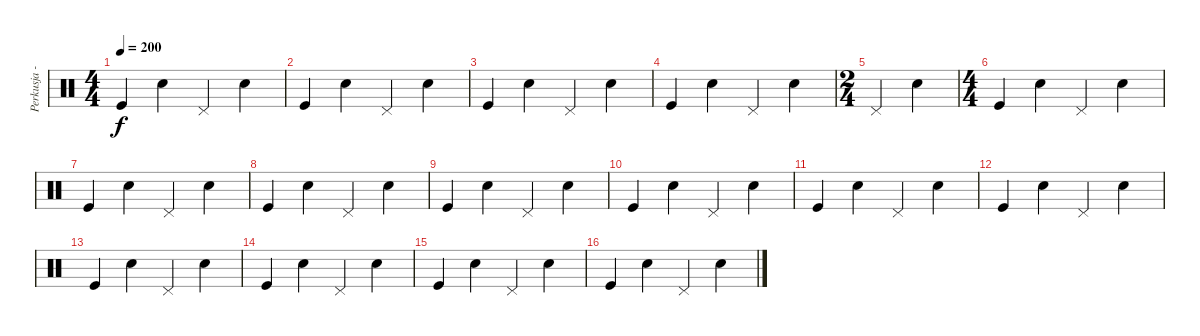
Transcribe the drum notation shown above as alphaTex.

\track ("Perkusja - J. Olejarz" "Perkusja -") {instrument percussion}
\staff {score}
\articulation defaults
\ts (4 4)
\tempo 200
\clef neutral
\ks c "Kick (hit)".4{dy f} "Electric Snare (hit)".4 "Pedal Hi-Hat (hit)".4 "Electric Snare (hit)".4
|
"Kick (hit)".4 "Electric Snare (hit)".4 "Pedal Hi-Hat (hit)".4 "Electric Snare (hit)".4 |
"Kick (hit)".4 "Electric Snare (hit)".4 "Pedal Hi-Hat (hit)".4 "Electric Snare (hit)".4 |
"Kick (hit)".4 "Electric Snare (hit)".4 "Pedal Hi-Hat (hit)".4 "Electric Snare (hit)".4 |
\ts (2 4)
"Pedal Hi-Hat (hit)".4 "Electric Snare (hit)".4 |
\ts (4 4)
"Kick (hit)".4 "Electric Snare (hit)".4 "Pedal Hi-Hat (hit)".4 "Electric Snare (hit)".4 |
"Kick (hit)".4 "Electric Snare (hit)".4 "Pedal Hi-Hat (hit)".4 "Electric Snare (hit)".4 |
"Kick (hit)".4 "Electric Snare (hit)".4 "Pedal Hi-Hat (hit)".4 "Electric Snare (hit)".4 |
"Kick (hit)".4 "Electric Snare (hit)".4 "Pedal Hi-Hat (hit)".4 "Electric Snare (hit)".4 |
"Kick (hit)".4 "Electric Snare (hit)".4 "Pedal Hi-Hat (hit)".4 "Electric Snare (hit)".4 |
"Kick (hit)".4 "Electric Snare (hit)".4 "Pedal Hi-Hat (hit)".4 "Electric Snare (hit)".4 |
"Kick (hit)".4 "Electric Snare (hit)".4 "Pedal Hi-Hat (hit)".4 "Electric Snare (hit)".4 |
"Kick (hit)".4 "Electric Snare (hit)".4 "Pedal Hi-Hat (hit)".4 "Electric Snare (hit)".4 |
"Kick (hit)".4 "Electric Snare (hit)".4 "Pedal Hi-Hat (hit)".4 "Electric Snare (hit)".4 |
"Kick (hit)".4 "Electric Snare (hit)".4 "Pedal Hi-Hat (hit)".4 "Electric Snare (hit)".4 |
"Kick (hit)".4 "Electric Snare (hit)".4 "Pedal Hi-Hat (hit)".4 "Electric Snare (hit)".4
